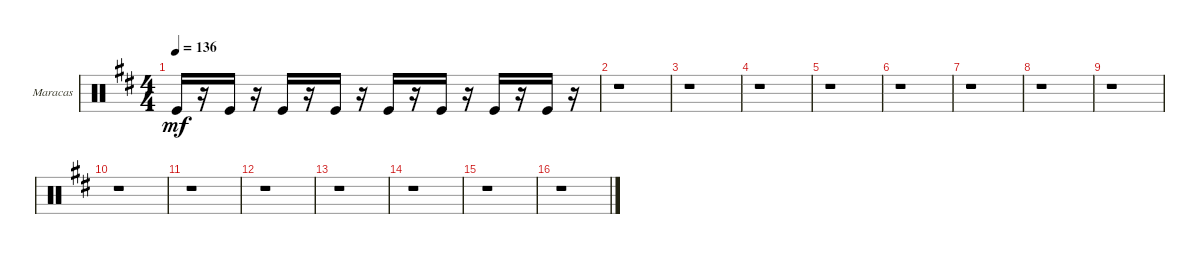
\defaultSystemsLayout 4
\bracketExtendMode groupsimilarinstruments
\firstSystemTrackNameOrientation horizontal
\otherSystemsTrackNameOrientation horizontal
\track ("Maracas" "Maracas") {instrument percussion}
\staff {score}
\articulation defaults
\ts (4 4)
\tempo 136
\clef neutral
\ks d "Kick (hit)".16{dy mf}
r.16 "Kick (hit)".16 r.16 "Kick (hit)".16 r.16 "Kick (hit)".16 r.16 "Kick (hit)".16 r.16 "Kick (hit)".16 r.16 "Kick (hit)".16 r.16 "Kick (hit)".16 r.16 |
r.1 |
r.1 |
r.1 |
r.1 |
r.1 |
r.1 |
r.1 |
r.1 |
r.1 |
r.1 |
r.1 |
r.1 |
r.1 |
r.1 |
r.1
